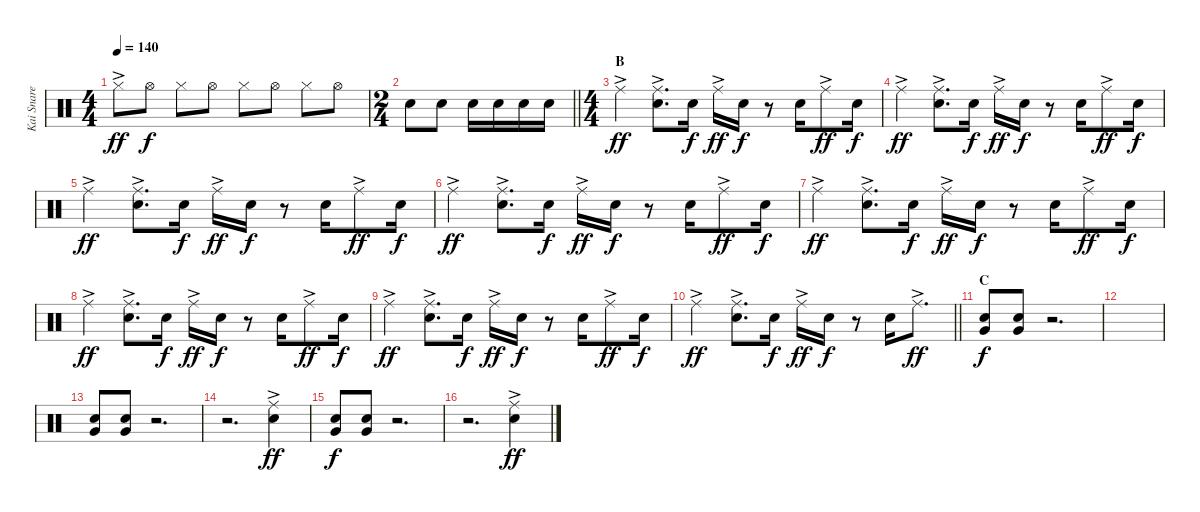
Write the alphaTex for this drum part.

\track ("Kai Snare" "Kai Snare") {instrument percussion}
\staff {score}
\articulation defaults
\ts (4 4)
\tempo 140
\clef neutral
\ks c "Hi-Hat (closed)"{ac}.8{dy ff} "Hi-Hat (open)".8{dy f} "Hi-Hat (closed)".8 "Hi-Hat (open)".8 "Hi-Hat (closed)".8 "Hi-Hat (open)".8 "Hi-Hat (closed)".8 "Hi-Hat (open)".8
|
\ts (2 4)
\barLineRight lightlight "Snare (hit) 2".8 "Snare (hit) 2".8 "Snare (hit) 2".16 "Snare (hit) 2".16 "Snare (hit) 2".16 "Snare (hit) 2".16
|
\ts (4 4)
\section ("" "B")
"Ride (middle)"{ac}.4{dy ff} ("Ride (middle)"{ac} "Snare (hit) 2").8{d} "Snare (hit) 2".16{dy f} "Ride (middle)"{ac}.16{dy ff} "Snare (hit) 2".16{dy f} r.8 "Snare (hit) 2".16 "Ride (middle)"{ac}.8{dy ff} "Snare (hit) 2".16{dy f} |
"Ride (middle)"{ac}.4{dy ff} ("Ride (middle)"{ac} "Snare (hit) 2").8{d} "Snare (hit) 2".16{dy f} "Ride (middle)"{ac}.16{dy ff} "Snare (hit) 2".16{dy f} r.8 "Snare (hit) 2".16 "Ride (middle)"{ac}.8{dy ff} "Snare (hit) 2".16{dy f} |
"Ride (middle)"{ac}.4{dy ff} ("Ride (middle)"{ac} "Snare (hit) 2").8{d} "Snare (hit) 2".16{dy f} "Ride (middle)"{ac}.16{dy ff} "Snare (hit) 2".16{dy f} r.8 "Snare (hit) 2".16 "Ride (middle)"{ac}.8{dy ff} "Snare (hit) 2".16{dy f} |
"Ride (middle)"{ac}.4{dy ff} ("Ride (middle)"{ac} "Snare (hit) 2").8{d} "Snare (hit) 2".16{dy f} "Ride (middle)"{ac}.16{dy ff} "Snare (hit) 2".16{dy f} r.8 "Snare (hit) 2".16 "Ride (middle)"{ac}.8{dy ff} "Snare (hit) 2".16{dy f} |
"Ride (middle)"{ac}.4{dy ff} ("Ride (middle)"{ac} "Snare (hit) 2").8{d} "Snare (hit) 2".16{dy f} "Ride (middle)"{ac}.16{dy ff} "Snare (hit) 2".16{dy f} r.8 "Snare (hit) 2".16 "Ride (middle)"{ac}.8{dy ff} "Snare (hit) 2".16{dy f} |
"Ride (middle)"{ac}.4{dy ff} ("Ride (middle)"{ac} "Snare (hit) 2").8{d} "Snare (hit) 2".16{dy f} "Ride (middle)"{ac}.16{dy ff} "Snare (hit) 2".16{dy f} r.8 "Snare (hit) 2".16 "Ride (middle)"{ac}.8{dy ff} "Snare (hit) 2".16{dy f} |
"Ride (middle)"{ac}.4{dy ff} ("Ride (middle)"{ac} "Snare (hit) 2").8{d} "Snare (hit) 2".16{dy f} "Ride (middle)"{ac}.16{dy ff} "Snare (hit) 2".16{dy f} r.8 "Snare (hit) 2".16 "Ride (middle)"{ac}.8{dy ff} "Snare (hit) 2".16{dy f} |
\barLineRight lightlight "Ride (middle)"{ac}.4{dy ff}
("Ride (middle)"{ac} "Snare (hit) 2").8{d} "Snare (hit) 2".16{dy f} "Ride (middle)"{ac}.16{dy ff} "Snare (hit) 2".16{dy f} r.8 "Snare (hit) 2".16 "Ride (middle)"{ac}.8{d dy ff} |
\section ("" "C")
("Very Low Tom (hit)" "Snare (hit) 2").8{dy f} ("Very Low Tom (hit)" "Snare (hit) 2").8 r.2{d} |
|
("Very Low Tom (hit)" "Snare (hit) 2").8 ("Very Low Tom (hit)" "Snare (hit) 2").8 r.2{d} |
r.2{d} ("Ride (middle)"{ac} "Snare (hit) 2").4{dy ff} |
("Very Low Tom (hit)" "Snare (hit) 2").8{dy f} ("Very Low Tom (hit)" "Snare (hit) 2").8 r.2{d} |
r.2{d} ("Ride (middle)"{ac} "Snare (hit) 2").4{dy ff}
